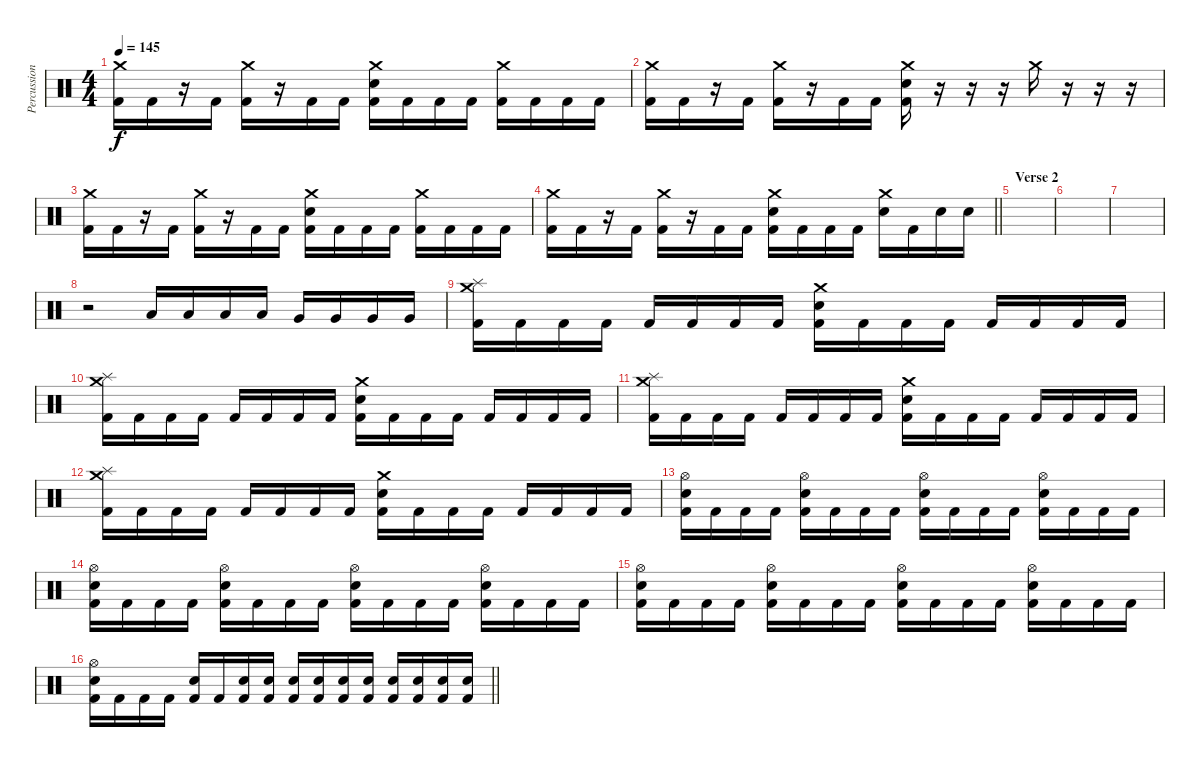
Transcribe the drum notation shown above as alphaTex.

\track ("Percussion" "Percussion") {instrument percussion}
\staff {score}
\articulation defaults
\ts (4 4)
\tempo 145
\clef neutral
\ks aminor
("Crash medium (hit)" "Kick (hit) 2").16{dy f} "Kick (hit) 2".16 r.16 "Kick (hit) 2".16 ("Crash medium (hit)" "Kick (hit) 2").16 r.16 "Kick (hit) 2".16 "Kick (hit) 2".16 ("Crash medium (hit)" "Electric Snare (hit)" "Kick (hit) 2").16 "Kick (hit) 2".16 "Kick (hit) 2".16 "Kick (hit) 2".16 ("Crash medium (hit)" "Kick (hit) 2").16 "Kick (hit) 2".16 "Kick (hit) 2".16 "Kick (hit) 2".16 |
("Crash medium (hit)" "Kick (hit) 2").16 "Kick (hit) 2".16 r.16 "Kick (hit) 2".16 ("Crash medium (hit)" "Kick (hit) 2").16 r.16 "Kick (hit) 2".16 "Kick (hit) 2".16 ("Crash medium (hit)" "Electric Snare (hit)" "Kick (hit) 2").16 r.16 r.16 r.16 "Crash medium (hit)".16 r.16 r.16 r.16 |
("Crash medium (hit)" "Kick (hit) 2").16 "Kick (hit) 2".16 r.16 "Kick (hit) 2".16 ("Crash medium (hit)" "Kick (hit) 2").16 r.16 "Kick (hit) 2".16 "Kick (hit) 2".16 ("Crash medium (hit)" "Electric Snare (hit)" "Kick (hit) 2").16 "Kick (hit) 2".16 "Kick (hit) 2".16 "Kick (hit) 2".16 ("Crash medium (hit)" "Kick (hit) 2").16 "Kick (hit) 2".16 "Kick (hit) 2".16 "Kick (hit) 2".16 |
\barLineRight lightlight
("Crash medium (hit)" "Kick (hit) 2").16 "Kick (hit) 2".16 r.16 "Kick (hit) 2".16 ("Crash medium (hit)" "Kick (hit) 2").16 r.16 "Kick (hit) 2".16 "Kick (hit) 2".16 ("Crash medium (hit)" "Electric Snare (hit)" "Kick (hit) 2").16 "Kick (hit) 2".16 "Kick (hit) 2".16 "Kick (hit) 2".16 ("Crash medium (hit)" "Electric Snare (hit)").16 "Kick (hit) 2".16 "Electric Snare (hit)".16 "Electric Snare (hit)".16 |
\section ("" "Verse 2")
|
|
|
r.2 "Low Tom (hit)".16 "Low Tom (hit)".16 "Low Tom (hit)".16 "Low Tom (hit)".16 "Very Low Tom (hit)".16 "Very Low Tom (hit)".16 "Very Low Tom (hit)".16 "Very Low Tom (hit)".16 |
("Crash medium (hit)" "Splash (hit)" "Kick (hit) 2").16 "Kick (hit) 2".16 "Kick (hit) 2".16 "Kick (hit) 2".16 "Kick (hit) 2".16 "Kick (hit) 2".16 "Kick (hit) 2".16 "Kick (hit) 2".16 ("Crash medium (hit)" "Electric Snare (hit)" "Kick (hit) 2").16 "Kick (hit) 2".16 "Kick (hit) 2".16 "Kick (hit) 2".16 "Kick (hit) 2".16 "Kick (hit) 2".16 "Kick (hit) 2".16 "Kick (hit) 2".16 |
("Crash medium (hit)" "Splash (hit)" "Kick (hit) 2").16 "Kick (hit) 2".16 "Kick (hit) 2".16 "Kick (hit) 2".16 "Kick (hit) 2".16 "Kick (hit) 2".16 "Kick (hit) 2".16 "Kick (hit) 2".16 ("Crash medium (hit)" "Electric Snare (hit)" "Kick (hit) 2").16 "Kick (hit) 2".16 "Kick (hit) 2".16 "Kick (hit) 2".16 "Kick (hit) 2".16 "Kick (hit) 2".16 "Kick (hit) 2".16 "Kick (hit) 2".16 |
("Crash medium (hit)" "Splash (hit)" "Kick (hit) 2").16 "Kick (hit) 2".16 "Kick (hit) 2".16 "Kick (hit) 2".16 "Kick (hit) 2".16 "Kick (hit) 2".16 "Kick (hit) 2".16 "Kick (hit) 2".16 ("Crash medium (hit)" "Electric Snare (hit)" "Kick (hit) 2").16 "Kick (hit) 2".16 "Kick (hit) 2".16 "Kick (hit) 2".16 "Kick (hit) 2".16 "Kick (hit) 2".16 "Kick (hit) 2".16 "Kick (hit) 2".16 |
("Crash medium (hit)" "Splash (hit)" "Kick (hit) 2").16 "Kick (hit) 2".16 "Kick (hit) 2".16 "Kick (hit) 2".16 "Kick (hit) 2".16 "Kick (hit) 2".16 "Kick (hit) 2".16 "Kick (hit) 2".16 ("Crash medium (hit)" "Electric Snare (hit)" "Kick (hit) 2").16 "Kick (hit) 2".16 "Kick (hit) 2".16 "Kick (hit) 2".16 "Kick (hit) 2".16 "Kick (hit) 2".16 "Kick (hit) 2".16 "Kick (hit) 2".16 |
("Hi-Hat (open)" "Electric Snare (hit)" "Kick (hit) 2").16 "Kick (hit) 2".16 "Kick (hit) 2".16 "Kick (hit) 2".16 ("Hi-Hat (open)" "Electric Snare (hit)" "Kick (hit) 2").16 "Kick (hit) 2".16 "Kick (hit) 2".16 "Kick (hit) 2".16 ("Hi-Hat (open)" "Electric Snare (hit)" "Kick (hit) 2").16 "Kick (hit) 2".16 "Kick (hit) 2".16 "Kick (hit) 2".16 ("Hi-Hat (open)" "Electric Snare (hit)" "Kick (hit) 2").16 "Kick (hit) 2".16 "Kick (hit) 2".16 "Kick (hit) 2".16 |
("Hi-Hat (open)" "Electric Snare (hit)" "Kick (hit) 2").16 "Kick (hit) 2".16 "Kick (hit) 2".16 "Kick (hit) 2".16 ("Hi-Hat (open)" "Electric Snare (hit)" "Kick (hit) 2").16 "Kick (hit) 2".16 "Kick (hit) 2".16 "Kick (hit) 2".16 ("Hi-Hat (open)" "Electric Snare (hit)" "Kick (hit) 2").16 "Kick (hit) 2".16 "Kick (hit) 2".16 "Kick (hit) 2".16 ("Hi-Hat (open)" "Electric Snare (hit)" "Kick (hit) 2").16 "Kick (hit) 2".16 "Kick (hit) 2".16 "Kick (hit) 2".16 |
("Hi-Hat (open)" "Electric Snare (hit)" "Kick (hit) 2").16 "Kick (hit) 2".16 "Kick (hit) 2".16 "Kick (hit) 2".16 ("Hi-Hat (open)" "Electric Snare (hit)" "Kick (hit) 2").16 "Kick (hit) 2".16 "Kick (hit) 2".16 "Kick (hit) 2".16 ("Hi-Hat (open)" "Electric Snare (hit)" "Kick (hit) 2").16 "Kick (hit) 2".16 "Kick (hit) 2".16 "Kick (hit) 2".16 ("Hi-Hat (open)" "Electric Snare (hit)" "Kick (hit) 2").16 "Kick (hit) 2".16 "Kick (hit) 2".16 "Kick (hit) 2".16 |
\barLineRight lightlight
("Hi-Hat (open)" "Electric Snare (hit)" "Kick (hit) 2").16 "Kick (hit) 2".16 "Kick (hit) 2".16 "Kick (hit) 2".16 ("Electric Snare (hit)" "Kick (hit) 2").16 "Kick (hit) 2".16 ("Electric Snare (hit)" "Kick (hit) 2").16 ("Electric Snare (hit)" "Kick (hit) 2").16 ("Electric Snare (hit)" "Kick (hit) 2").16 ("Electric Snare (hit)" "Kick (hit) 2").16 ("Electric Snare (hit)" "Kick (hit) 2").16 ("Electric Snare (hit)" "Kick (hit) 2").16 ("Electric Snare (hit)" "Kick (hit) 2").16 ("Electric Snare (hit)" "Kick (hit) 2").16 ("Electric Snare (hit)" "Kick (hit) 2").16 ("Electric Snare (hit)" "Kick (hit) 2").16
